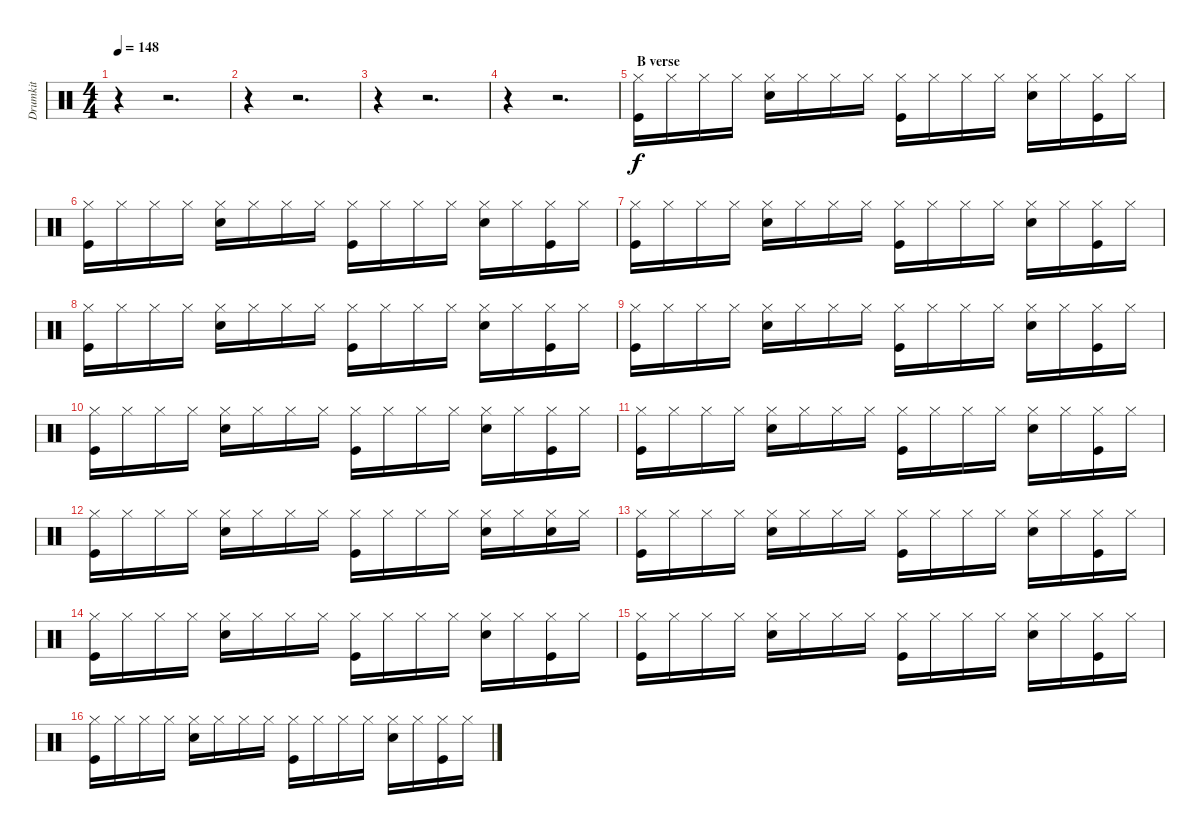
\track ("Drumkit" "Drumkit") {instrument percussion}
\staff {score}
\articulation defaults
\ts (4 4)
\tempo 148
\clef neutral
\ks c
r.4{dy f} r.2{d} |
r.4 r.2{d} |
r.4 r.2{d} |
r.4 r.2{d} |
\section ("" " B verse")
("Hi-Hat (closed)" "Kick (hit)").16 "Hi-Hat (closed)".16 "Hi-Hat (closed)".16 "Hi-Hat (closed)".16 ("Hi-Hat (closed)" "Snare (hit) 2").16 "Hi-Hat (closed)".16 "Hi-Hat (closed)".16 "Hi-Hat (closed)".16 ("Hi-Hat (closed)" "Kick (hit)").16 "Hi-Hat (closed)".16 "Hi-Hat (closed)".16 "Hi-Hat (closed)".16 ("Hi-Hat (closed)" "Snare (hit) 2").16 "Hi-Hat (closed)".16 ("Hi-Hat (closed)" "Kick (hit)").16 "Hi-Hat (closed)".16 |
("Hi-Hat (closed)" "Kick (hit)").16 "Hi-Hat (closed)".16 "Hi-Hat (closed)".16 "Hi-Hat (closed)".16 ("Hi-Hat (closed)" "Snare (hit) 2").16 "Hi-Hat (closed)".16 "Hi-Hat (closed)".16 "Hi-Hat (closed)".16 ("Hi-Hat (closed)" "Kick (hit)").16 "Hi-Hat (closed)".16 "Hi-Hat (closed)".16 "Hi-Hat (closed)".16 ("Hi-Hat (closed)" "Snare (hit) 2").16 "Hi-Hat (closed)".16 ("Hi-Hat (closed)" "Kick (hit)").16 "Hi-Hat (closed)".16 |
("Hi-Hat (closed)" "Kick (hit)").16 "Hi-Hat (closed)".16 "Hi-Hat (closed)".16 "Hi-Hat (closed)".16 ("Hi-Hat (closed)" "Snare (hit) 2").16 "Hi-Hat (closed)".16 "Hi-Hat (closed)".16 "Hi-Hat (closed)".16 ("Hi-Hat (closed)" "Kick (hit)").16 "Hi-Hat (closed)".16 "Hi-Hat (closed)".16 "Hi-Hat (closed)".16 ("Hi-Hat (closed)" "Snare (hit) 2").16 "Hi-Hat (closed)".16 ("Hi-Hat (closed)" "Kick (hit)").16 "Hi-Hat (closed)".16 |
("Hi-Hat (closed)" "Kick (hit)").16 "Hi-Hat (closed)".16 "Hi-Hat (closed)".16 "Hi-Hat (closed)".16 ("Hi-Hat (closed)" "Snare (hit) 2").16 "Hi-Hat (closed)".16 "Hi-Hat (closed)".16 "Hi-Hat (closed)".16 ("Hi-Hat (closed)" "Kick (hit)").16 "Hi-Hat (closed)".16 "Hi-Hat (closed)".16 "Hi-Hat (closed)".16 ("Hi-Hat (closed)" "Snare (hit) 2").16 "Hi-Hat (closed)".16 ("Hi-Hat (closed)" "Kick (hit)").16 "Hi-Hat (closed)".16 |
("Hi-Hat (closed)" "Kick (hit)").16 "Hi-Hat (closed)".16 "Hi-Hat (closed)".16 "Hi-Hat (closed)".16 ("Hi-Hat (closed)" "Snare (hit) 2").16 "Hi-Hat (closed)".16 "Hi-Hat (closed)".16 "Hi-Hat (closed)".16 ("Hi-Hat (closed)" "Kick (hit)").16 "Hi-Hat (closed)".16 "Hi-Hat (closed)".16 "Hi-Hat (closed)".16 ("Hi-Hat (closed)" "Snare (hit) 2").16 "Hi-Hat (closed)".16 ("Hi-Hat (closed)" "Kick (hit)").16 "Hi-Hat (closed)".16 |
("Hi-Hat (closed)" "Kick (hit)").16 "Hi-Hat (closed)".16 "Hi-Hat (closed)".16 "Hi-Hat (closed)".16 ("Hi-Hat (closed)" "Snare (hit) 2").16 "Hi-Hat (closed)".16 "Hi-Hat (closed)".16 "Hi-Hat (closed)".16 ("Hi-Hat (closed)" "Kick (hit)").16 "Hi-Hat (closed)".16 "Hi-Hat (closed)".16 "Hi-Hat (closed)".16 ("Hi-Hat (closed)" "Snare (hit) 2").16 "Hi-Hat (closed)".16 ("Hi-Hat (closed)" "Kick (hit)").16 "Hi-Hat (closed)".16 |
("Hi-Hat (closed)" "Kick (hit)").16 "Hi-Hat (closed)".16 "Hi-Hat (closed)".16 "Hi-Hat (closed)".16 ("Hi-Hat (closed)" "Snare (hit) 2").16 "Hi-Hat (closed)".16 "Hi-Hat (closed)".16 "Hi-Hat (closed)".16 ("Hi-Hat (closed)" "Kick (hit)").16 "Hi-Hat (closed)".16 "Hi-Hat (closed)".16 "Hi-Hat (closed)".16 ("Hi-Hat (closed)" "Snare (hit) 2").16 "Hi-Hat (closed)".16 ("Hi-Hat (closed)" "Kick (hit)").16 "Hi-Hat (closed)".16 |
("Hi-Hat (closed)" "Kick (hit)").16 "Hi-Hat (closed)".16 "Hi-Hat (closed)".16 "Hi-Hat (closed)".16 ("Hi-Hat (closed)" "Snare (hit) 2").16 "Hi-Hat (closed)".16 "Hi-Hat (closed)".16 "Hi-Hat (closed)".16 ("Hi-Hat (closed)" "Kick (hit)").16 "Hi-Hat (closed)".16 "Hi-Hat (closed)".16 "Hi-Hat (closed)".16 ("Hi-Hat (closed)" "Snare (hit) 2").16 "Hi-Hat (closed)".16 ("Hi-Hat (closed)" "Snare (hit) 2").16 "Hi-Hat (closed)".16 |
("Hi-Hat (closed)" "Kick (hit)").16 "Hi-Hat (closed)".16 "Hi-Hat (closed)".16 "Hi-Hat (closed)".16 ("Hi-Hat (closed)" "Snare (hit) 2").16 "Hi-Hat (closed)".16 "Hi-Hat (closed)".16 "Hi-Hat (closed)".16 ("Hi-Hat (closed)" "Kick (hit)").16 "Hi-Hat (closed)".16 "Hi-Hat (closed)".16 "Hi-Hat (closed)".16 ("Hi-Hat (closed)" "Snare (hit) 2").16 "Hi-Hat (closed)".16 ("Hi-Hat (closed)" "Kick (hit)").16 "Hi-Hat (closed)".16 |
("Hi-Hat (closed)" "Kick (hit)").16 "Hi-Hat (closed)".16 "Hi-Hat (closed)".16 "Hi-Hat (closed)".16 ("Hi-Hat (closed)" "Snare (hit) 2").16 "Hi-Hat (closed)".16 "Hi-Hat (closed)".16 "Hi-Hat (closed)".16 ("Hi-Hat (closed)" "Kick (hit)").16 "Hi-Hat (closed)".16 "Hi-Hat (closed)".16 "Hi-Hat (closed)".16 ("Hi-Hat (closed)" "Snare (hit) 2").16 "Hi-Hat (closed)".16 ("Hi-Hat (closed)" "Kick (hit)").16 "Hi-Hat (closed)".16 |
("Hi-Hat (closed)" "Kick (hit)").16 "Hi-Hat (closed)".16 "Hi-Hat (closed)".16 "Hi-Hat (closed)".16 ("Hi-Hat (closed)" "Snare (hit) 2").16 "Hi-Hat (closed)".16 "Hi-Hat (closed)".16 "Hi-Hat (closed)".16 ("Hi-Hat (closed)" "Kick (hit)").16 "Hi-Hat (closed)".16 "Hi-Hat (closed)".16 "Hi-Hat (closed)".16 ("Hi-Hat (closed)" "Snare (hit) 2").16 "Hi-Hat (closed)".16 ("Hi-Hat (closed)" "Kick (hit)").16 "Hi-Hat (closed)".16 |
("Hi-Hat (closed)" "Kick (hit)").16 "Hi-Hat (closed)".16 "Hi-Hat (closed)".16 "Hi-Hat (closed)".16 ("Hi-Hat (closed)" "Snare (hit) 2").16 "Hi-Hat (closed)".16 "Hi-Hat (closed)".16 "Hi-Hat (closed)".16 ("Hi-Hat (closed)" "Kick (hit)").16 "Hi-Hat (closed)".16 "Hi-Hat (closed)".16 "Hi-Hat (closed)".16 ("Hi-Hat (closed)" "Snare (hit) 2").16 "Hi-Hat (closed)".16 ("Hi-Hat (closed)" "Kick (hit)").16 "Hi-Hat (closed)".16
